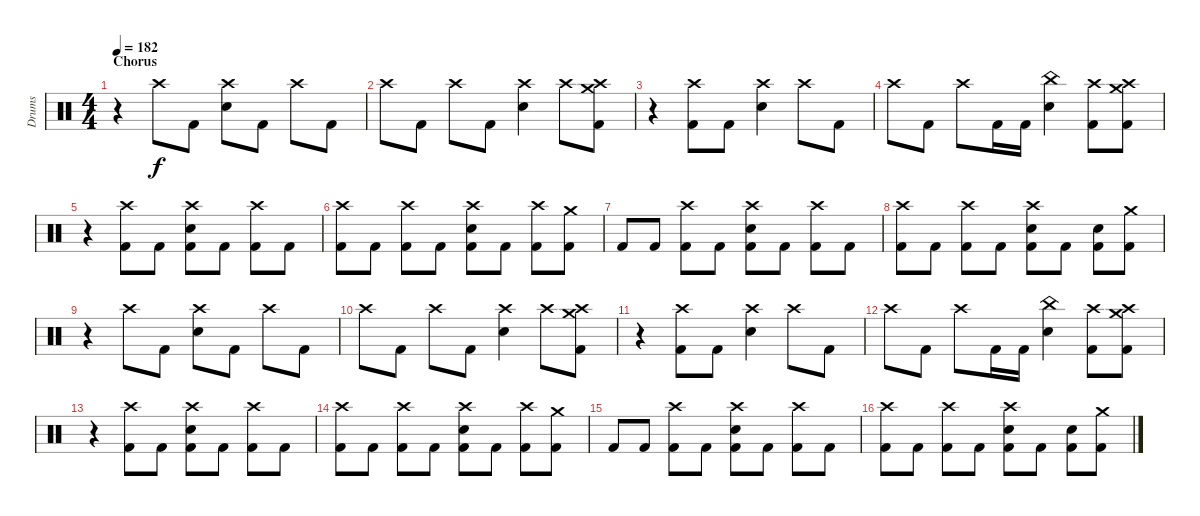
\track ("Drums" "Drums") {instrument percussion}
\staff {score}
\articulation defaults
\ts (4 4)
\section ("" "Chorus")
\tempo 182
\clef neutral
\ks c
r.4{dy f} "Crash high (hit)".8 "Kick (hit) 2".8 ("Crash high (hit)" "Snare (hit) 2").8 "Kick (hit) 2".8 "Crash high (hit)".8 "Kick (hit) 2".8 |
"Crash high (hit)".8 "Kick (hit) 2".8 "Crash high (hit)".8 "Kick (hit) 2".8 ("Crash high (hit)" "Snare (hit) 2").4 "Crash high (hit)".8 ("Crash medium (hit)" "Crash high (hit)" "Kick (hit) 2").8 |
r.4 ("Crash high (hit)" "Kick (hit) 2").8 "Kick (hit) 2".8 ("Crash high (hit)" "Snare (hit) 2").4 "Crash high (hit)".8 "Kick (hit) 2".8 |
"Crash high (hit)".8 "Kick (hit) 2".8 "Crash high (hit)".8 "Kick (hit) 2".16 "Kick (hit) 2".16 ("China (hit)" "Snare (hit) 2").4 ("Crash high (hit)" "Kick (hit) 2").8 ("Crash medium (hit)" "Crash high (hit)" "Kick (hit) 2").8 |
r.4 ("Crash high (hit)" "Kick (hit) 2").8 "Kick (hit) 2".8 ("Crash high (hit)" "Snare (hit) 2" "Kick (hit) 2").8 "Kick (hit) 2".8 ("Crash high (hit)" "Kick (hit) 2").8 "Kick (hit) 2".8 |
("Crash high (hit)" "Kick (hit) 2").8 "Kick (hit) 2".8 ("Crash high (hit)" "Kick (hit) 2").8 "Kick (hit) 2".8 ("Crash high (hit)" "Snare (hit) 2" "Kick (hit) 2").8 "Kick (hit) 2".8 ("Crash high (hit)" "Kick (hit) 2").8 ("Crash medium (hit)" "Kick (hit) 2").8 |
"Kick (hit) 2".8 "Kick (hit) 2".8 ("Crash high (hit)" "Kick (hit) 2").8 "Kick (hit) 2".8 ("Crash high (hit)" "Snare (hit) 2" "Kick (hit) 2").8 "Kick (hit) 2".8 ("Crash high (hit)" "Kick (hit) 2").8 "Kick (hit) 2".8 |
("Crash high (hit)" "Kick (hit) 2").8 "Kick (hit) 2".8 ("Crash high (hit)" "Kick (hit) 2").8 "Kick (hit) 2".8 ("Crash high (hit)" "Snare (hit) 2" "Kick (hit) 2").8 "Kick (hit) 2".8 ("Snare (hit) 2" "Kick (hit) 2").8 ("Crash medium (hit)" "Kick (hit) 2").8 |
r.4 "Crash high (hit)".8 "Kick (hit) 2".8 ("Crash high (hit)" "Snare (hit) 2").8 "Kick (hit) 2".8 "Crash high (hit)".8 "Kick (hit) 2".8 |
"Crash high (hit)".8 "Kick (hit) 2".8 "Crash high (hit)".8 "Kick (hit) 2".8 ("Crash high (hit)" "Snare (hit) 2").4 "Crash high (hit)".8 ("Crash medium (hit)" "Crash high (hit)" "Kick (hit) 2").8 |
r.4 ("Crash high (hit)" "Kick (hit) 2").8 "Kick (hit) 2".8 ("Crash high (hit)" "Snare (hit) 2").4 "Crash high (hit)".8 "Kick (hit) 2".8 |
"Crash high (hit)".8 "Kick (hit) 2".8 "Crash high (hit)".8 "Kick (hit) 2".16 "Kick (hit) 2".16 ("China (hit)" "Snare (hit) 2").4 ("Crash high (hit)" "Kick (hit) 2").8 ("Crash medium (hit)" "Crash high (hit)" "Kick (hit) 2").8 |
r.4 ("Crash high (hit)" "Kick (hit) 2").8 "Kick (hit) 2".8 ("Crash high (hit)" "Snare (hit) 2" "Kick (hit) 2").8 "Kick (hit) 2".8 ("Crash high (hit)" "Kick (hit) 2").8 "Kick (hit) 2".8 |
("Crash high (hit)" "Kick (hit) 2").8 "Kick (hit) 2".8 ("Crash high (hit)" "Kick (hit) 2").8 "Kick (hit) 2".8 ("Crash high (hit)" "Snare (hit) 2" "Kick (hit) 2").8 "Kick (hit) 2".8 ("Crash high (hit)" "Kick (hit) 2").8 ("Crash medium (hit)" "Kick (hit) 2").8 |
"Kick (hit) 2".8 "Kick (hit) 2".8 ("Crash high (hit)" "Kick (hit) 2").8 "Kick (hit) 2".8 ("Crash high (hit)" "Snare (hit) 2" "Kick (hit) 2").8 "Kick (hit) 2".8 ("Crash high (hit)" "Kick (hit) 2").8 "Kick (hit) 2".8 |
("Crash high (hit)" "Kick (hit) 2").8 "Kick (hit) 2".8 ("Crash high (hit)" "Kick (hit) 2").8 "Kick (hit) 2".8 ("Crash high (hit)" "Snare (hit) 2" "Kick (hit) 2").8 "Kick (hit) 2".8 ("Snare (hit) 2" "Kick (hit) 2").8 ("Crash medium (hit)" "Kick (hit) 2").8
